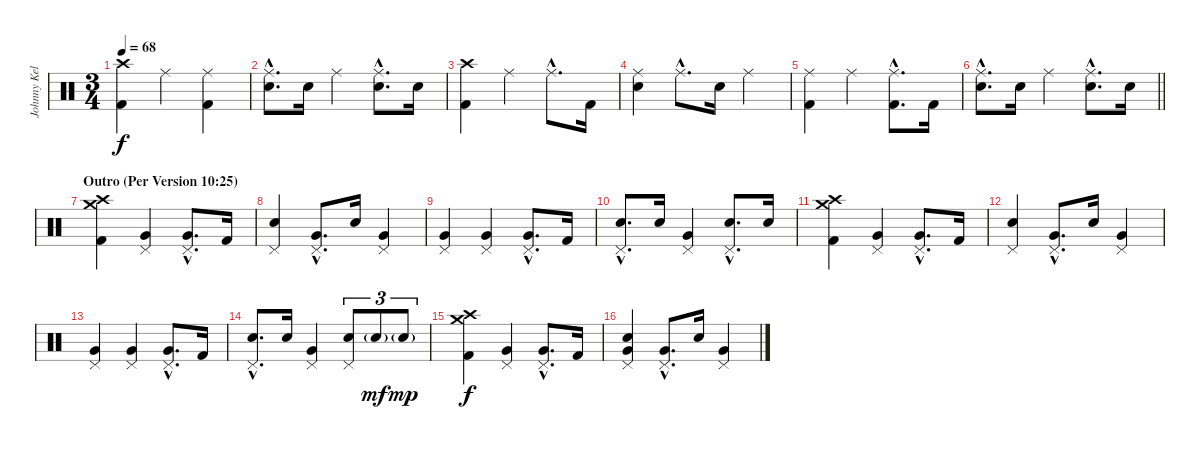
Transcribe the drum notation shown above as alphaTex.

\track ("Johnny Kelly" "Johnny Kel") {instrument percussion}
\staff {score}
\articulation defaults
\ts (3 4)
\tempo 68
\clef neutral
\ks c
("Crash high (hit)" "Kick (hit) 2").4{dy f} "Ride (middle)".4 ("Ride (middle)" "Kick (hit) 2").4 |
("Ride (middle)"{hac} "Electric Snare (hit)"{hac}).8{d} "Electric Snare (hit)".16 "Ride (middle)".4 ("Ride (middle)"{hac} "Electric Snare (hit)"{hac}).8{d} "Electric Snare (hit)".16 |
("Crash high (hit)" "Kick (hit) 2").4 "Ride (middle)".4 "Ride (middle)"{hac}.8{d} "Kick (hit) 2".16 |
("Ride (middle)" "Electric Snare (hit)").4 "Ride (middle)"{hac}.8{d} "Electric Snare (hit)".16 "Ride (middle)".4 |
("Ride (middle)" "Kick (hit) 2").4 "Ride (middle)".4 ("Ride (middle)"{hac} "Kick (hit) 2"{hac}).8{d} "Kick (hit) 2".16 |
\barLineRight lightlight
("Ride (middle)"{hac} "Electric Snare (hit)"{hac}).8{d} "Electric Snare (hit)".16 "Ride (middle)".4 ("Ride (middle)"{hac} "Electric Snare (hit)"{hac}).8{d} "Electric Snare (hit)".16 |
\section ("" "Outro (Per Version 10:25)")
("Crash high (hit)" "Crash medium (hit)" "Kick (hit) 2").4 ("Pedal Hi-Hat (hit)" "Very Low Tom (hit)").4 ("Pedal Hi-Hat (hit)"{hac} "Very Low Tom (hit)"{hac}).8{d} "Kick (hit) 2".16 |
("Pedal Hi-Hat (hit)" "Electric Snare (hit)").4 ("Pedal Hi-Hat (hit)"{hac} "Very Low Tom (hit)"{hac}).8{d} "Electric Snare (hit)".16 ("Pedal Hi-Hat (hit)" "Very Low Tom (hit)").4 |
("Pedal Hi-Hat (hit)" "Very Low Tom (hit)").4 ("Pedal Hi-Hat (hit)" "Very Low Tom (hit)").4 ("Pedal Hi-Hat (hit)"{hac} "Very Low Tom (hit)"{hac}).8{d} "Kick (hit) 2".16 |
("Pedal Hi-Hat (hit)"{hac} "Electric Snare (hit)"{hac}).8{d} "Electric Snare (hit)".16 ("Pedal Hi-Hat (hit)" "Very Low Tom (hit)").4 ("Pedal Hi-Hat (hit)"{hac} "Electric Snare (hit)"{hac}).8{d} "Electric Snare (hit)".16 |
("Crash high (hit)" "Crash medium (hit)" "Kick (hit) 2").4 ("Pedal Hi-Hat (hit)" "Very Low Tom (hit)").4 ("Pedal Hi-Hat (hit)"{hac} "Very Low Tom (hit)"{hac}).8{d} "Kick (hit) 2".16 |
("Pedal Hi-Hat (hit)" "Electric Snare (hit)").4 ("Pedal Hi-Hat (hit)"{hac} "Very Low Tom (hit)"{hac}).8{d} "Electric Snare (hit)".16 ("Pedal Hi-Hat (hit)" "Very Low Tom (hit)").4 |
("Pedal Hi-Hat (hit)" "Very Low Tom (hit)").4 ("Pedal Hi-Hat (hit)" "Very Low Tom (hit)").4 ("Pedal Hi-Hat (hit)"{hac} "Very Low Tom (hit)"{hac}).8{d} "Kick (hit) 2".16 |
("Pedal Hi-Hat (hit)"{hac} "Electric Snare (hit)"{hac}).8{d} "Electric Snare (hit)".16 ("Pedal Hi-Hat (hit)" "Very Low Tom (hit)").4 ("Pedal Hi-Hat (hit)" "Electric Snare (hit)").8{tu (3 2)} "Electric Snare (hit)"{g}.8{tu (3 2) dy mf} "Electric Snare (hit)"{g}.8{tu (3 2) dy mp} |
("Crash high (hit)" "Crash medium (hit)" "Kick (hit) 2").4{dy f} ("Pedal Hi-Hat (hit)" "Very Low Tom (hit)").4 ("Pedal Hi-Hat (hit)"{hac} "Very Low Tom (hit)"{hac}).8{d} "Kick (hit) 2".16 |
("Pedal Hi-Hat (hit)" "Very Low Tom (hit)" "Electric Snare (hit)").4 ("Pedal Hi-Hat (hit)"{hac} "Very Low Tom (hit)"{hac}).8{d} "Electric Snare (hit)".16 ("Pedal Hi-Hat (hit)" "Very Low Tom (hit)").4
